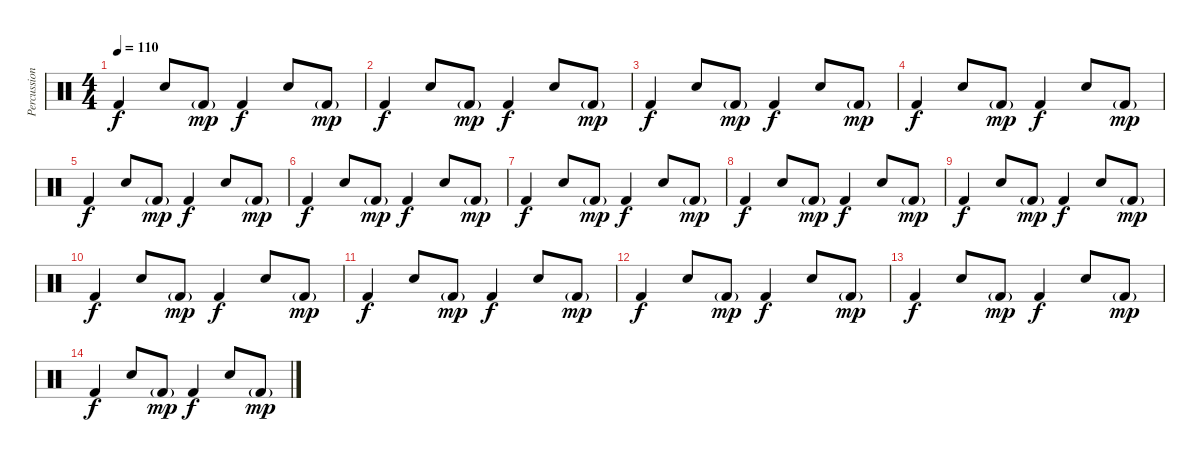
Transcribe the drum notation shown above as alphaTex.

\track ("Percussion" "Percussion") {instrument percussion}
\staff {score}
\articulation defaults
\ts (4 4)
\tempo 110
\clef neutral
\ks c "Kick (hit) 2".4{dy f} "Snare (hit) 2".8 "Kick (hit) 2"{g}.8{dy mp} "Kick (hit) 2".4{dy f} "Snare (hit) 2".8 "Kick (hit) 2"{g}.8{dy mp}
|
"Kick (hit) 2".4{dy f} "Snare (hit) 2".8 "Kick (hit) 2"{g}.8{dy mp} "Kick (hit) 2".4{dy f} "Snare (hit) 2".8 "Kick (hit) 2"{g}.8{dy mp} |
"Kick (hit) 2".4{dy f} "Snare (hit) 2".8 "Kick (hit) 2"{g}.8{dy mp} "Kick (hit) 2".4{dy f} "Snare (hit) 2".8 "Kick (hit) 2"{g}.8{dy mp} |
"Kick (hit) 2".4{dy f} "Snare (hit) 2".8 "Kick (hit) 2"{g}.8{dy mp} "Kick (hit) 2".4{dy f} "Snare (hit) 2".8 "Kick (hit) 2"{g}.8{dy mp} |
"Kick (hit) 2".4{dy f} "Snare (hit) 2".8 "Kick (hit) 2"{g}.8{dy mp} "Kick (hit) 2".4{dy f} "Snare (hit) 2".8 "Kick (hit) 2"{g}.8{dy mp} |
"Kick (hit) 2".4{dy f} "Snare (hit) 2".8 "Kick (hit) 2"{g}.8{dy mp} "Kick (hit) 2".4{dy f} "Snare (hit) 2".8 "Kick (hit) 2"{g}.8{dy mp} |
"Kick (hit) 2".4{dy f} "Snare (hit) 2".8 "Kick (hit) 2"{g}.8{dy mp} "Kick (hit) 2".4{dy f} "Snare (hit) 2".8 "Kick (hit) 2"{g}.8{dy mp} |
"Kick (hit) 2".4{dy f} "Snare (hit) 2".8 "Kick (hit) 2"{g}.8{dy mp} "Kick (hit) 2".4{dy f} "Snare (hit) 2".8 "Kick (hit) 2"{g}.8{dy mp} |
"Kick (hit) 2".4{dy f} "Snare (hit) 2".8 "Kick (hit) 2"{g}.8{dy mp} "Kick (hit) 2".4{dy f} "Snare (hit) 2".8 "Kick (hit) 2"{g}.8{dy mp} |
"Kick (hit) 2".4{dy f} "Snare (hit) 2".8 "Kick (hit) 2"{g}.8{dy mp} "Kick (hit) 2".4{dy f} "Snare (hit) 2".8 "Kick (hit) 2"{g}.8{dy mp} |
"Kick (hit) 2".4{dy f} "Snare (hit) 2".8 "Kick (hit) 2"{g}.8{dy mp} "Kick (hit) 2".4{dy f} "Snare (hit) 2".8 "Kick (hit) 2"{g}.8{dy mp} |
"Kick (hit) 2".4{dy f} "Snare (hit) 2".8 "Kick (hit) 2"{g}.8{dy mp} "Kick (hit) 2".4{dy f} "Snare (hit) 2".8 "Kick (hit) 2"{g}.8{dy mp} |
"Kick (hit) 2".4{dy f} "Snare (hit) 2".8 "Kick (hit) 2"{g}.8{dy mp} "Kick (hit) 2".4{dy f} "Snare (hit) 2".8 "Kick (hit) 2"{g}.8{dy mp} |
"Kick (hit) 2".4{dy f} "Snare (hit) 2".8 "Kick (hit) 2"{g}.8{dy mp} "Kick (hit) 2".4{dy f} "Snare (hit) 2".8 "Kick (hit) 2"{g}.8{dy mp}
